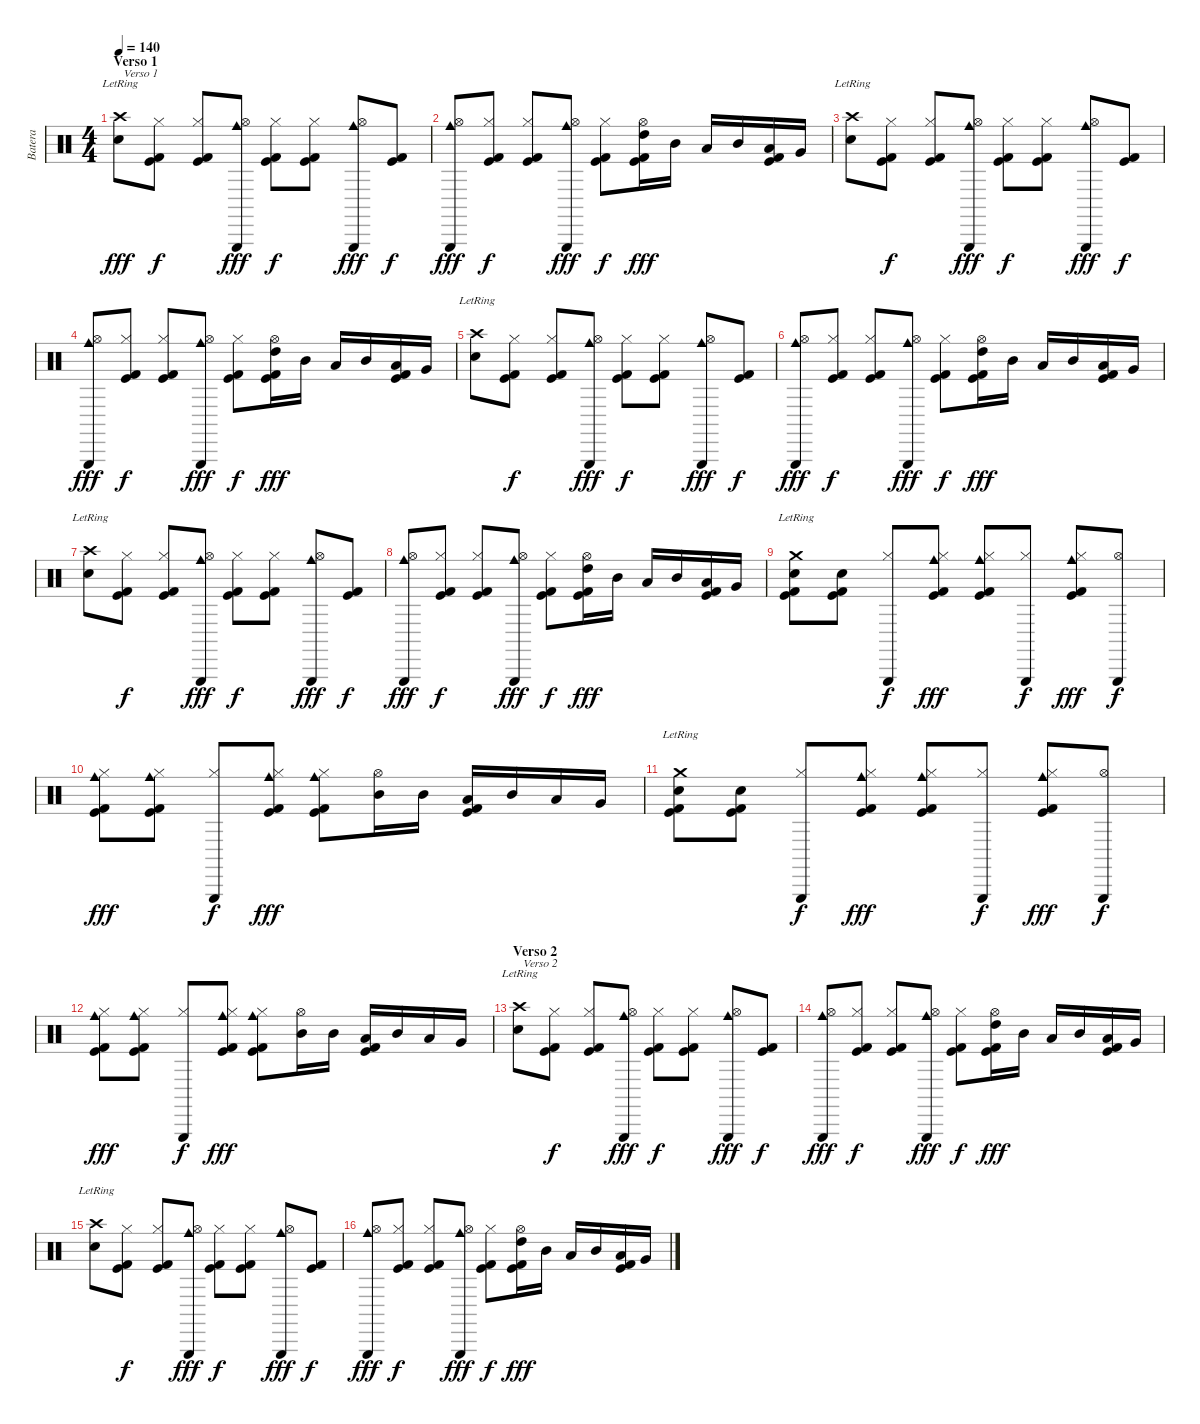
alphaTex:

\track ("Batera" "Batera") {instrument percussion}
\staff {score}
\articulation defaults
\ts (4 4)
\section ("" "Verso 1")
\tempo 140
\clef neutral
\ks c
("Metronome (bell)" "Crash high (hit)"{lr}).8{txt " Verso 1" dy fff} ("Hi-Hat (closed)" "Kick (hit)" "Kick (hit) 2").8{dy f} ("Hi-Hat (closed)" "Kick (hit)" "Kick (hit) 2").8 ("Hi-Hat (open)" "Cowbell medium (hit)" "Triangle (hit)").8{dy fff} ("Hi-Hat (closed)" "Kick (hit)" "Kick (hit) 2").8{dy f} ("Hi-Hat (closed)" "Kick (hit)" "Kick (hit) 2").8 ("Hi-Hat (open)" "Cowbell medium (hit)" "Triangle (hit)").8{dy fff} ("Kick (hit)" "Kick (hit) 2").8{dy f} |
("Hi-Hat (open)" "Cowbell medium (hit)" "Triangle (hit)").8{dy fff} ("Hi-Hat (closed)" "Kick (hit)" "Kick (hit) 2").8{dy f} ("Hi-Hat (closed)" "Kick (hit)" "Kick (hit) 2").8 ("Hi-Hat (open)" "Cowbell medium (hit)" "Triangle (hit)").8{dy fff} ("Hi-Hat (closed)" "Kick (hit)" "Kick (hit) 2").8{dy f} ("Hi-Hat (open)" "Kick (hit)" "High Tom (hit)" "Kick (hit) 2").16{dy fff} "Mid Tom (hit)".16 "Low Tom (hit)".16 "Mid Tom (hit)".16 ("Kick (hit)" "Low Tom (hit)" "Kick (hit) 2").16 "Very Low Tom (hit)".16 |
("Metronome (bell)" "Crash high (hit)"{lr}).8 ("Hi-Hat (closed)" "Kick (hit)" "Kick (hit) 2").8{dy f} ("Hi-Hat (closed)" "Kick (hit)" "Kick (hit) 2").8 ("Hi-Hat (open)" "Cowbell medium (hit)" "Triangle (hit)").8{dy fff} ("Hi-Hat (closed)" "Kick (hit)" "Kick (hit) 2").8{dy f} ("Hi-Hat (closed)" "Kick (hit)" "Kick (hit) 2").8 ("Hi-Hat (open)" "Cowbell medium (hit)" "Triangle (hit)").8{dy fff} ("Kick (hit)" "Kick (hit) 2").8{dy f} |
("Hi-Hat (open)" "Cowbell medium (hit)" "Triangle (hit)").8{dy fff} ("Hi-Hat (closed)" "Kick (hit)" "Kick (hit) 2").8{dy f} ("Hi-Hat (closed)" "Kick (hit)" "Kick (hit) 2").8 ("Hi-Hat (open)" "Cowbell medium (hit)" "Triangle (hit)").8{dy fff} ("Hi-Hat (closed)" "Kick (hit)" "Kick (hit) 2").8{dy f} ("Hi-Hat (open)" "Kick (hit)" "High Tom (hit)" "Kick (hit) 2").16{dy fff} "Mid Tom (hit)".16 "Low Tom (hit)".16 "Mid Tom (hit)".16 ("Kick (hit)" "Low Tom (hit)" "Kick (hit) 2").16 "Very Low Tom (hit)".16 |
("Metronome (bell)" "Crash high (hit)"{lr}).8 ("Hi-Hat (closed)" "Kick (hit)" "Kick (hit) 2").8{dy f} ("Hi-Hat (closed)" "Kick (hit)" "Kick (hit) 2").8 ("Hi-Hat (open)" "Cowbell medium (hit)" "Triangle (hit)").8{dy fff} ("Hi-Hat (closed)" "Kick (hit)" "Kick (hit) 2").8{dy f} ("Hi-Hat (closed)" "Kick (hit)" "Kick (hit) 2").8 ("Hi-Hat (open)" "Cowbell medium (hit)" "Triangle (hit)").8{dy fff} ("Kick (hit)" "Kick (hit) 2").8{dy f} |
("Hi-Hat (open)" "Cowbell medium (hit)" "Triangle (hit)").8{dy fff} ("Hi-Hat (closed)" "Kick (hit)" "Kick (hit) 2").8{dy f} ("Hi-Hat (closed)" "Kick (hit)" "Kick (hit) 2").8 ("Hi-Hat (open)" "Cowbell medium (hit)" "Triangle (hit)").8{dy fff} ("Hi-Hat (closed)" "Kick (hit)" "Kick (hit) 2").8{dy f} ("Hi-Hat (open)" "Kick (hit)" "High Tom (hit)" "Kick (hit) 2").16{dy fff} "Mid Tom (hit)".16 "Low Tom (hit)".16 "Mid Tom (hit)".16 ("Kick (hit)" "Low Tom (hit)" "Kick (hit) 2").16 "Very Low Tom (hit)".16 |
("Metronome (bell)" "Crash high (hit)"{lr}).8 ("Hi-Hat (closed)" "Kick (hit)" "Kick (hit) 2").8{dy f} ("Hi-Hat (closed)" "Kick (hit)" "Kick (hit) 2").8 ("Hi-Hat (open)" "Cowbell medium (hit)" "Triangle (hit)").8{dy fff} ("Hi-Hat (closed)" "Kick (hit)" "Kick (hit) 2").8{dy f} ("Hi-Hat (closed)" "Kick (hit)" "Kick (hit) 2").8 ("Hi-Hat (open)" "Cowbell medium (hit)" "Triangle (hit)").8{dy fff} ("Kick (hit)" "Kick (hit) 2").8{dy f} |
("Hi-Hat (open)" "Cowbell medium (hit)" "Triangle (hit)").8{dy fff} ("Hi-Hat (closed)" "Kick (hit)" "Kick (hit) 2").8{dy f} ("Hi-Hat (closed)" "Kick (hit)" "Kick (hit) 2").8 ("Hi-Hat (open)" "Cowbell medium (hit)" "Triangle (hit)").8{dy fff} ("Hi-Hat (closed)" "Kick (hit)" "Kick (hit) 2").8{dy f} ("Hi-Hat (open)" "Kick (hit)" "High Tom (hit)" "Kick (hit) 2").16{dy fff} "Mid Tom (hit)".16 "Low Tom (hit)".16 "Mid Tom (hit)".16 ("Kick (hit)" "Low Tom (hit)" "Kick (hit) 2").16 "Very Low Tom (hit)".16 |
("Kick (hit)" "Electric Snare (hit)" "Crash medium (hit)"{lr} "Kick (hit) 2").8 ("Kick (hit)" "Electric Snare (hit)" "Kick (hit) 2").8 ("Hi-Hat (closed)" "Triangle (hit)").8{dy f} ("Hi-Hat (closed)" "Kick (hit)" "Cowbell medium (hit)" "Kick (hit) 2").8{dy fff} ("Hi-Hat (closed)" "Kick (hit)" "Cowbell medium (hit)" "Kick (hit) 2").8 ("Hi-Hat (closed)" "Triangle (hit)").8{dy f} ("Hi-Hat (closed)" "Kick (hit)" "Cowbell medium (hit)" "Kick (hit) 2").8{dy fff} ("Hi-Hat (open)" "Triangle (hit)").8{dy f} |
("Hi-Hat (closed)" "Kick (hit)" "Cowbell medium (hit)" "Kick (hit) 2").8{dy fff} ("Hi-Hat (closed)" "Kick (hit)" "Cowbell medium (hit)" "Kick (hit) 2").8 ("Hi-Hat (closed)" "Triangle (hit)").8{dy f} ("Hi-Hat (closed)" "Kick (hit)" "Cowbell medium (hit)" "Kick (hit) 2").8{dy fff} ("Hi-Hat (closed)" "Kick (hit)" "Cowbell medium (hit)" "Kick (hit) 2").8 ("Hi-Hat (open)" "Mid Tom (hit)").16 "Mid Tom (hit)".16 ("Kick (hit)" "Low Tom (hit)" "Kick (hit) 2").16 "Mid Tom (hit)".16 "Low Tom (hit)".16 "Very Low Tom (hit)".16 |
("Kick (hit)" "Electric Snare (hit)" "Crash medium (hit)"{lr} "Kick (hit) 2").8 ("Kick (hit)" "Electric Snare (hit)" "Kick (hit) 2").8 ("Hi-Hat (closed)" "Triangle (hit)").8{dy f} ("Hi-Hat (closed)" "Kick (hit)" "Cowbell medium (hit)" "Kick (hit) 2").8{dy fff} ("Hi-Hat (closed)" "Kick (hit)" "Cowbell medium (hit)" "Kick (hit) 2").8 ("Hi-Hat (closed)" "Triangle (hit)").8{dy f} ("Hi-Hat (closed)" "Kick (hit)" "Cowbell medium (hit)" "Kick (hit) 2").8{dy fff} ("Hi-Hat (open)" "Triangle (hit)").8{dy f} |
("Hi-Hat (closed)" "Kick (hit)" "Cowbell medium (hit)" "Kick (hit) 2").8{dy fff} ("Hi-Hat (closed)" "Kick (hit)" "Cowbell medium (hit)" "Kick (hit) 2").8 ("Hi-Hat (closed)" "Triangle (hit)").8{dy f} ("Hi-Hat (closed)" "Kick (hit)" "Cowbell medium (hit)" "Kick (hit) 2").8{dy fff} ("Hi-Hat (closed)" "Kick (hit)" "Cowbell medium (hit)" "Kick (hit) 2").8 ("Hi-Hat (open)" "Mid Tom (hit)").16 "Mid Tom (hit)".16 ("Kick (hit)" "Low Tom (hit)" "Kick (hit) 2").16 "Mid Tom (hit)".16 "Low Tom (hit)".16 "Very Low Tom (hit)".16 |
\section ("" "Verso 2")
("Metronome (bell)" "Crash high (hit)"{lr}).8{txt " Verso 2"} ("Hi-Hat (closed)" "Kick (hit)" "Kick (hit) 2").8{dy f} ("Hi-Hat (closed)" "Kick (hit)" "Kick (hit) 2").8 ("Hi-Hat (open)" "Cowbell medium (hit)" "Triangle (hit)").8{dy fff} ("Hi-Hat (closed)" "Kick (hit)" "Kick (hit) 2").8{dy f} ("Hi-Hat (closed)" "Kick (hit)" "Kick (hit) 2").8 ("Hi-Hat (open)" "Cowbell medium (hit)" "Triangle (hit)").8{dy fff} ("Kick (hit)" "Kick (hit) 2").8{dy f} |
("Hi-Hat (open)" "Cowbell medium (hit)" "Triangle (hit)").8{dy fff} ("Hi-Hat (closed)" "Kick (hit)" "Kick (hit) 2").8{dy f} ("Hi-Hat (closed)" "Kick (hit)" "Kick (hit) 2").8 ("Hi-Hat (open)" "Cowbell medium (hit)" "Triangle (hit)").8{dy fff} ("Hi-Hat (closed)" "Kick (hit)" "Kick (hit) 2").8{dy f} ("Hi-Hat (open)" "Kick (hit)" "High Tom (hit)" "Kick (hit) 2").16{dy fff} "Mid Tom (hit)".16 "Low Tom (hit)".16 "Mid Tom (hit)".16 ("Kick (hit)" "Low Tom (hit)" "Kick (hit) 2").16 "Very Low Tom (hit)".16 |
("Metronome (bell)" "Crash high (hit)"{lr}).8 ("Hi-Hat (closed)" "Kick (hit)" "Kick (hit) 2").8{dy f} ("Hi-Hat (closed)" "Kick (hit)" "Kick (hit) 2").8 ("Hi-Hat (open)" "Cowbell medium (hit)" "Triangle (hit)").8{dy fff} ("Hi-Hat (closed)" "Kick (hit)" "Kick (hit) 2").8{dy f} ("Hi-Hat (closed)" "Kick (hit)" "Kick (hit) 2").8 ("Hi-Hat (open)" "Cowbell medium (hit)" "Triangle (hit)").8{dy fff} ("Kick (hit)" "Kick (hit) 2").8{dy f} |
("Hi-Hat (open)" "Cowbell medium (hit)" "Triangle (hit)").8{dy fff} ("Hi-Hat (closed)" "Kick (hit)" "Kick (hit) 2").8{dy f} ("Hi-Hat (closed)" "Kick (hit)" "Kick (hit) 2").8 ("Hi-Hat (open)" "Cowbell medium (hit)" "Triangle (hit)").8{dy fff} ("Hi-Hat (closed)" "Kick (hit)" "Kick (hit) 2").8{dy f} ("Hi-Hat (open)" "Kick (hit)" "High Tom (hit)" "Kick (hit) 2").16{dy fff} "Mid Tom (hit)".16 "Low Tom (hit)".16 "Mid Tom (hit)".16 ("Kick (hit)" "Low Tom (hit)" "Kick (hit) 2").16 "Very Low Tom (hit)".16
